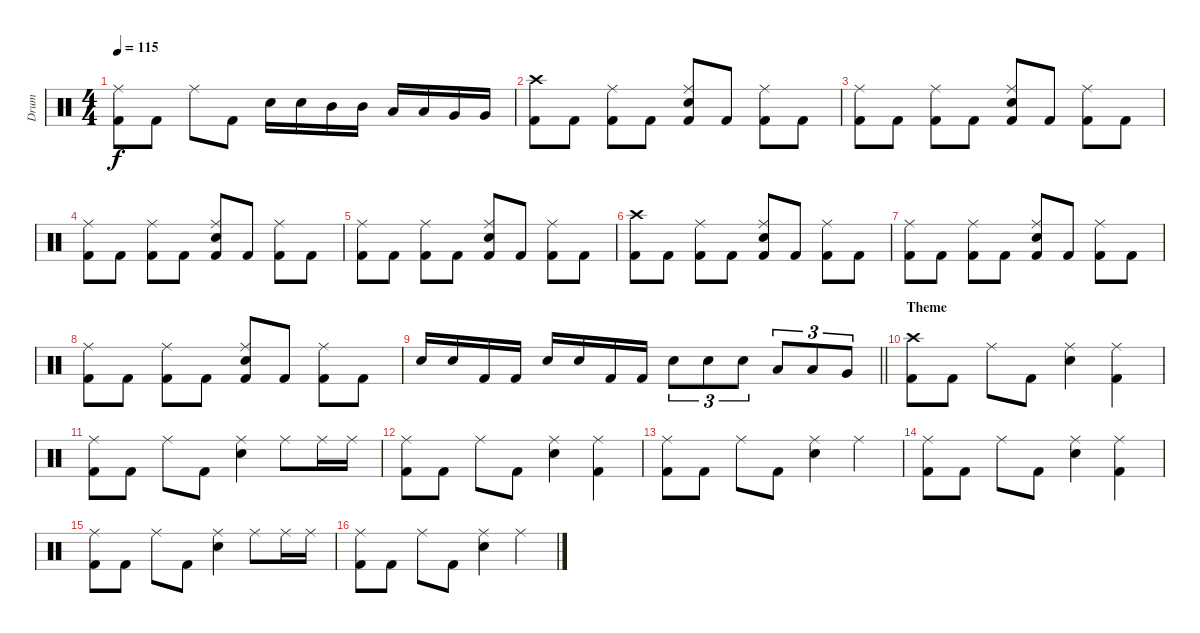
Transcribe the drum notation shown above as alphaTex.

\track ("Drum" "Drum") {instrument percussion}
\staff {score}
\articulation defaults
\ts (4 4)
\tempo 115
\clef neutral
\ks c
("Kick (hit) 2" "Ride (middle)").8{dy f} "Kick (hit) 2".8 "Ride (middle)".8 "Kick (hit) 2".8 "Electric Snare (hit)".16 "Electric Snare (hit)".16 "Mid Tom (hit)".16 "Mid Tom (hit)".16 "Low Tom (hit)".16 "Low Tom (hit)".16 "Very Low Tom (hit)".16 "Very Low Tom (hit)".16 |
("Kick (hit) 2" "Crash high (hit)").8 "Kick (hit) 2".8 ("Kick (hit) 2" "Ride (middle)").8 "Kick (hit) 2".8 ("Kick (hit) 2" "Ride (middle)" "Electric Snare (hit)").8 "Kick (hit) 2".8 ("Kick (hit) 2" "Ride (middle)").8 "Kick (hit) 2".8 |
("Kick (hit) 2" "Ride (middle)").8 "Kick (hit) 2".8 ("Kick (hit) 2" "Ride (middle)").8 "Kick (hit) 2".8 ("Kick (hit) 2" "Ride (middle)" "Electric Snare (hit)").8 "Kick (hit) 2".8 ("Kick (hit) 2" "Ride (middle)").8 "Kick (hit) 2".8 |
("Kick (hit) 2" "Ride (middle)").8 "Kick (hit) 2".8 ("Kick (hit) 2" "Ride (middle)").8 "Kick (hit) 2".8 ("Kick (hit) 2" "Ride (middle)" "Electric Snare (hit)").8 "Kick (hit) 2".8 ("Kick (hit) 2" "Ride (middle)").8 "Kick (hit) 2".8 |
("Kick (hit) 2" "Ride (middle)").8 "Kick (hit) 2".8 ("Kick (hit) 2" "Ride (middle)").8 "Kick (hit) 2".8 ("Kick (hit) 2" "Ride (middle)" "Electric Snare (hit)").8 "Kick (hit) 2".8 ("Kick (hit) 2" "Ride (middle)").8 "Kick (hit) 2".8 |
("Kick (hit) 2" "Crash high (hit)").8 "Kick (hit) 2".8 ("Kick (hit) 2" "Ride (middle)").8 "Kick (hit) 2".8 ("Kick (hit) 2" "Ride (middle)" "Electric Snare (hit)").8 "Kick (hit) 2".8 ("Kick (hit) 2" "Ride (middle)").8 "Kick (hit) 2".8 |
("Kick (hit) 2" "Ride (middle)").8 "Kick (hit) 2".8 ("Kick (hit) 2" "Ride (middle)").8 "Kick (hit) 2".8 ("Kick (hit) 2" "Ride (middle)" "Electric Snare (hit)").8 "Kick (hit) 2".8 ("Kick (hit) 2" "Ride (middle)").8 "Kick (hit) 2".8 |
("Kick (hit) 2" "Ride (middle)").8 "Kick (hit) 2".8 ("Kick (hit) 2" "Ride (middle)").8 "Kick (hit) 2".8 ("Kick (hit) 2" "Ride (middle)" "Electric Snare (hit)").8 "Kick (hit) 2".8 ("Kick (hit) 2" "Ride (middle)").8 "Kick (hit) 2".8 |
\barLineRight lightlight "Electric Snare (hit)".16 "Electric Snare (hit)".16 "Kick (hit) 2".16 "Kick (hit) 2".16 "Electric Snare (hit)".16 "Electric Snare (hit)".16 "Kick (hit) 2".16 "Kick (hit) 2".16 "Electric Snare (hit)".8{tu (3 2)} "Electric Snare (hit)".8{tu (3 2)} "Electric Snare (hit)".8{tu (3 2)} "Low Tom (hit)".8{tu (3 2)} "Low Tom (hit)".8{tu (3 2)} "Very Low Tom (hit)".8{tu (3 2)}
|
\section ("" "Theme")
("Kick (hit) 2" "Crash high (hit)").8 "Kick (hit) 2".8 "Ride (middle)".8 "Kick (hit) 2".8 ("Ride (middle)" "Electric Snare (hit)").4 ("Kick (hit) 2" "Ride (middle)").4 |
("Kick (hit) 2" "Ride (middle)").8 "Kick (hit) 2".8 "Ride (middle)".8 "Kick (hit) 2".8 ("Ride (middle)" "Electric Snare (hit)").4 "Ride (middle)".8 "Ride (middle)".16 "Ride (middle)".16 |
("Kick (hit) 2" "Ride (middle)").8 "Kick (hit) 2".8 "Ride (middle)".8 "Kick (hit) 2".8 ("Ride (middle)" "Electric Snare (hit)").4 ("Kick (hit) 2" "Ride (middle)").4 |
("Kick (hit) 2" "Ride (middle)").8 "Kick (hit) 2".8 "Ride (middle)".8 "Kick (hit) 2".8 ("Ride (middle)" "Electric Snare (hit)").4 "Ride (middle)".4 |
("Kick (hit) 2" "Ride (middle)").8 "Kick (hit) 2".8 "Ride (middle)".8 "Kick (hit) 2".8 ("Ride (middle)" "Electric Snare (hit)").4 ("Kick (hit) 2" "Ride (middle)").4 |
("Kick (hit) 2" "Ride (middle)").8 "Kick (hit) 2".8 "Ride (middle)".8 "Kick (hit) 2".8 ("Ride (middle)" "Electric Snare (hit)").4 "Ride (middle)".8 "Ride (middle)".16 "Ride (middle)".16 |
("Kick (hit) 2" "Ride (middle)").8 "Kick (hit) 2".8 "Ride (middle)".8 "Kick (hit) 2".8 ("Ride (middle)" "Electric Snare (hit)").4 "Ride (middle)".4
